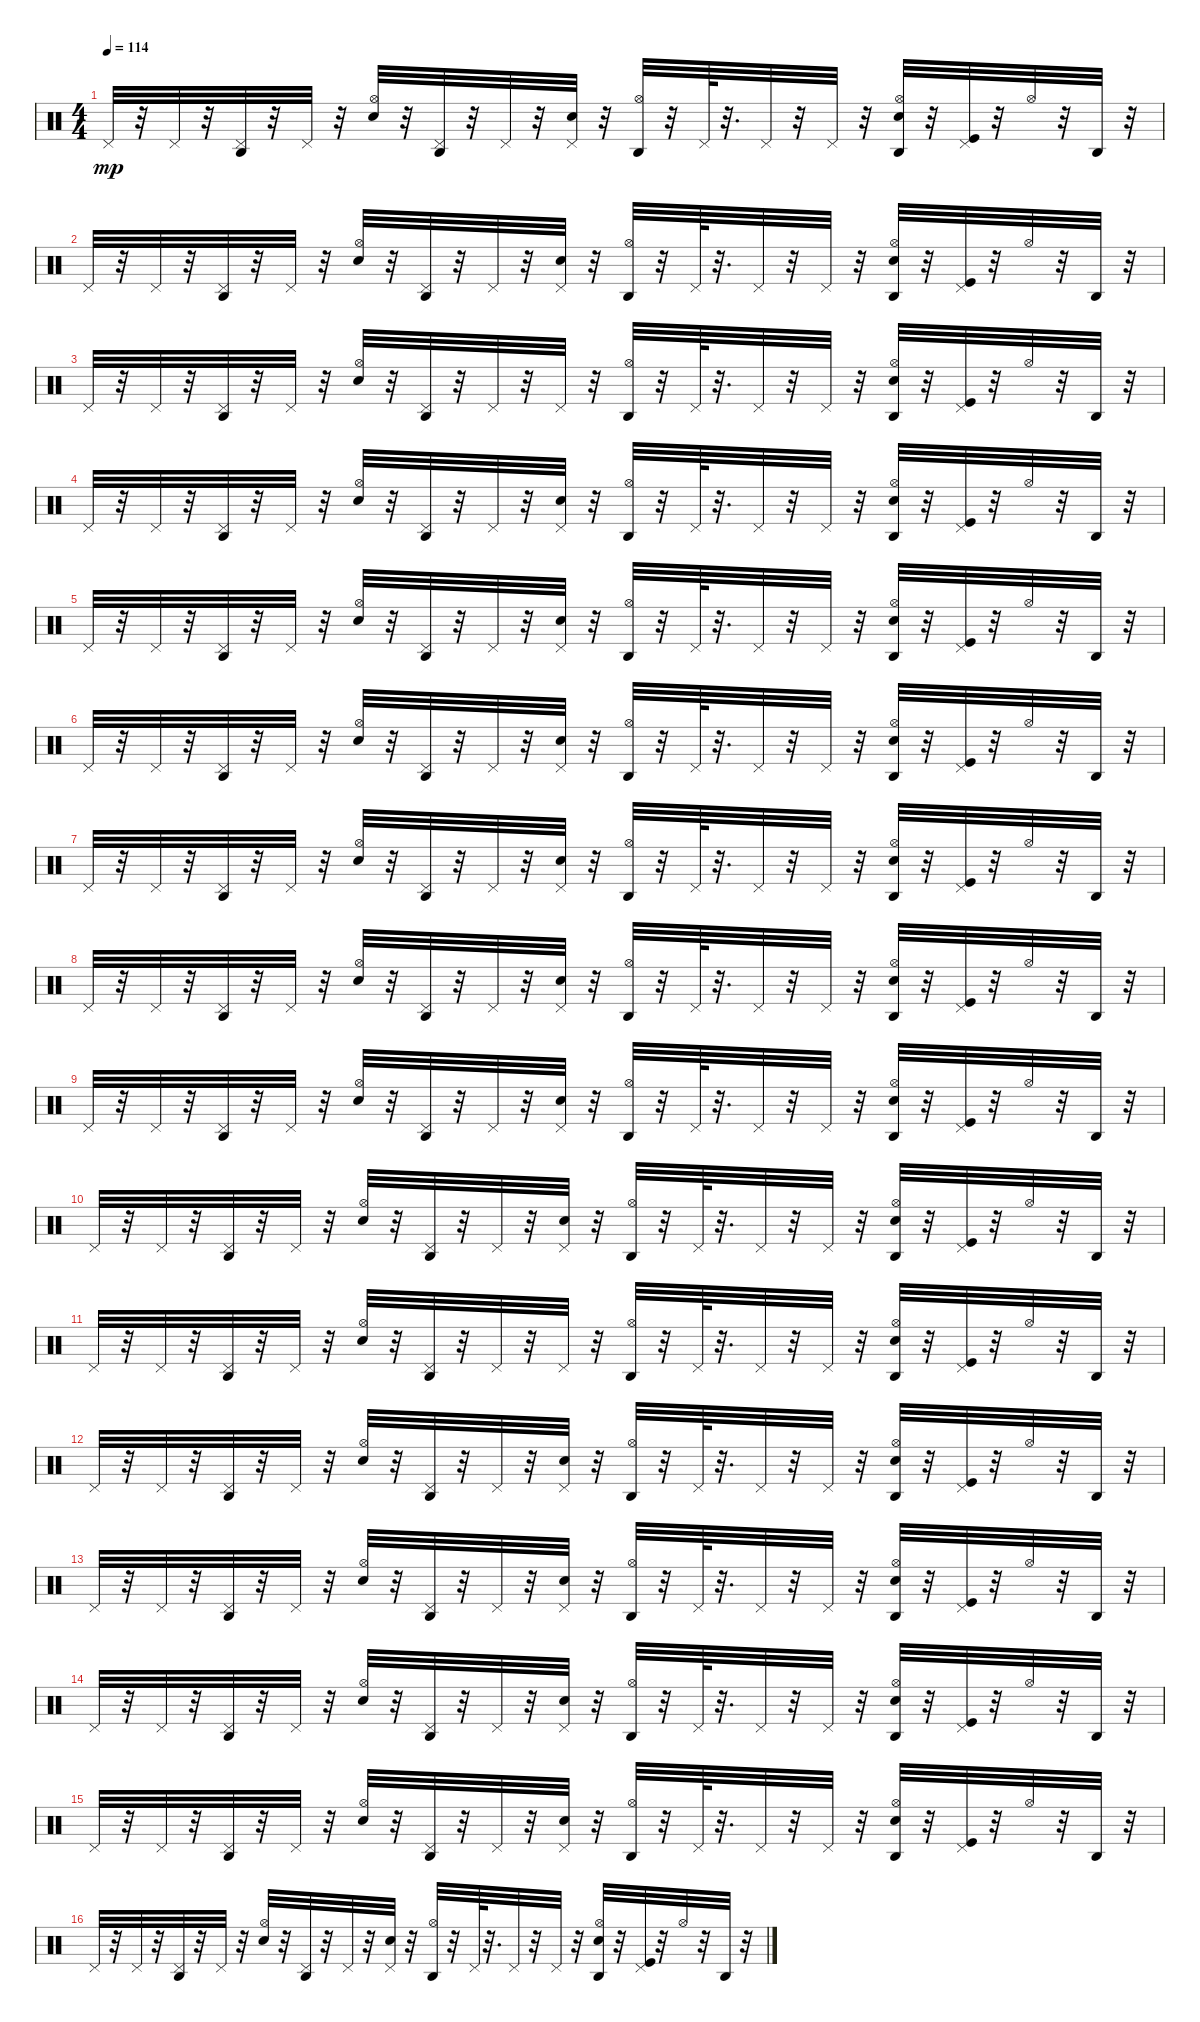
\track "" {instrument percussion}
\staff {score}
\articulation defaults
\ts (4 4)
\tempo 114
\clef neutral
\ks c "Pedal Hi-Hat (hit)".32{dy mp}
r.32 "Pedal Hi-Hat (hit)".32 r.32 ("Agogo high (hit)" "Pedal Hi-Hat (hit)").32 r.32 "Pedal Hi-Hat (hit)".32 r.32 ("Hi-Hat (open)" "Electric Snare (hit)").32 r.32 ("Pedal Hi-Hat (hit)" "Agogo high (hit)").32 r.32 "Pedal Hi-Hat (hit)".32 r.32 ("Pedal Hi-Hat (hit)" "Snare (hit) 2").32 r.32 ("Hi-Hat (open)" "Agogo high (hit)").32 r.32 "Pedal Hi-Hat (hit)".64 r.32{d} "Pedal Hi-Hat (hit)".32 r.32 "Pedal Hi-Hat (hit)".32 r.32 ("Hi-Hat (open)" "Agogo high (hit)" "Electric Snare (hit)").32 r.32 ("Pedal Hi-Hat (hit)" "Kick (hit)").32 r.32 "Hi-Hat (open)".32 r.32 "Agogo high (hit)".32 r.32 |
"Pedal Hi-Hat (hit)".32 r.32 "Pedal Hi-Hat (hit)".32 r.32 ("Agogo high (hit)" "Pedal Hi-Hat (hit)").32 r.32 "Pedal Hi-Hat (hit)".32 r.32 ("Hi-Hat (open)" "Electric Snare (hit)").32 r.32 ("Pedal Hi-Hat (hit)" "Agogo high (hit)").32 r.32 "Pedal Hi-Hat (hit)".32 r.32 ("Pedal Hi-Hat (hit)" "Snare (hit) 2").32 r.32 ("Hi-Hat (open)" "Agogo high (hit)").32 r.32 "Pedal Hi-Hat (hit)".64 r.32{d} "Pedal Hi-Hat (hit)".32 r.32 "Pedal Hi-Hat (hit)".32 r.32 ("Hi-Hat (open)" "Agogo high (hit)" "Electric Snare (hit)").32 r.32 ("Pedal Hi-Hat (hit)" "Kick (hit)").32 r.32 "Hi-Hat (open)".32 r.32 "Agogo high (hit)".32 r.32 |
"Pedal Hi-Hat (hit)".32 r.32 "Pedal Hi-Hat (hit)".32 r.32 ("Agogo high (hit)" "Pedal Hi-Hat (hit)").32 r.32 "Pedal Hi-Hat (hit)".32 r.32 ("Hi-Hat (open)" "Electric Snare (hit)").32 r.32 ("Pedal Hi-Hat (hit)" "Agogo high (hit)").32 r.32 "Pedal Hi-Hat (hit)".32 r.32 "Pedal Hi-Hat (hit)".32 r.32 ("Agogo high (hit)" "Hi-Hat (open)").32 r.32 "Pedal Hi-Hat (hit)".64 r.32{d} "Pedal Hi-Hat (hit)".32 r.32 "Pedal Hi-Hat (hit)".32 r.32 ("Hi-Hat (open)" "Electric Snare (hit)" "Agogo high (hit)").32 r.32 ("Pedal Hi-Hat (hit)" "Kick (hit)").32 r.32 "Hi-Hat (open)".32 r.32 "Agogo high (hit)".32 r.32 |
"Pedal Hi-Hat (hit)".32 r.32 "Pedal Hi-Hat (hit)".32 r.32 ("Agogo high (hit)" "Pedal Hi-Hat (hit)").32 r.32 "Pedal Hi-Hat (hit)".32 r.32 ("Hi-Hat (open)" "Electric Snare (hit)").32 r.32 ("Pedal Hi-Hat (hit)" "Agogo high (hit)").32 r.32 "Pedal Hi-Hat (hit)".32 r.32 ("Pedal Hi-Hat (hit)" "Snare (hit) 2").32 r.32 ("Hi-Hat (open)" "Agogo high (hit)").32 r.32 "Pedal Hi-Hat (hit)".64 r.32{d} "Pedal Hi-Hat (hit)".32 r.32 "Pedal Hi-Hat (hit)".32 r.32 ("Hi-Hat (open)" "Agogo high (hit)" "Electric Snare (hit)").32 r.32 ("Pedal Hi-Hat (hit)" "Kick (hit)").32 r.32 "Hi-Hat (open)".32 r.32 "Agogo high (hit)".32 r.32 |
"Pedal Hi-Hat (hit)".32 r.32 "Pedal Hi-Hat (hit)".32 r.32 ("Agogo high (hit)" "Pedal Hi-Hat (hit)").32 r.32 "Pedal Hi-Hat (hit)".32 r.32 ("Hi-Hat (open)" "Electric Snare (hit)").32 r.32 ("Pedal Hi-Hat (hit)" "Agogo high (hit)").32 r.32 "Pedal Hi-Hat (hit)".32 r.32 ("Pedal Hi-Hat (hit)" "Snare (hit) 2").32 r.32 ("Hi-Hat (open)" "Agogo high (hit)").32 r.32 "Pedal Hi-Hat (hit)".64 r.32{d} "Pedal Hi-Hat (hit)".32 r.32 "Pedal Hi-Hat (hit)".32 r.32 ("Hi-Hat (open)" "Agogo high (hit)" "Electric Snare (hit)").32 r.32 ("Pedal Hi-Hat (hit)" "Kick (hit)").32 r.32 "Hi-Hat (open)".32 r.32 "Agogo high (hit)".32 r.32 |
"Pedal Hi-Hat (hit)".32 r.32 "Pedal Hi-Hat (hit)".32 r.32 ("Agogo high (hit)" "Pedal Hi-Hat (hit)").32 r.32 "Pedal Hi-Hat (hit)".32 r.32 ("Hi-Hat (open)" "Electric Snare (hit)").32 r.32 ("Pedal Hi-Hat (hit)" "Agogo high (hit)").32 r.32 "Pedal Hi-Hat (hit)".32 r.32 ("Pedal Hi-Hat (hit)" "Snare (hit) 2").32 r.32 ("Hi-Hat (open)" "Agogo high (hit)").32 r.32 "Pedal Hi-Hat (hit)".64 r.32{d} "Pedal Hi-Hat (hit)".32 r.32 "Pedal Hi-Hat (hit)".32 r.32 ("Hi-Hat (open)" "Agogo high (hit)" "Electric Snare (hit)").32 r.32 ("Pedal Hi-Hat (hit)" "Kick (hit)").32 r.32 "Hi-Hat (open)".32 r.32 "Agogo high (hit)".32 r.32 |
"Pedal Hi-Hat (hit)".32 r.32 "Pedal Hi-Hat (hit)".32 r.32 ("Agogo high (hit)" "Pedal Hi-Hat (hit)").32 r.32 "Pedal Hi-Hat (hit)".32 r.32 ("Hi-Hat (open)" "Electric Snare (hit)").32 r.32 ("Pedal Hi-Hat (hit)" "Agogo high (hit)").32 r.32 "Pedal Hi-Hat (hit)".32 r.32 ("Pedal Hi-Hat (hit)" "Snare (hit) 2").32 r.32 ("Hi-Hat (open)" "Agogo high (hit)").32 r.32 "Pedal Hi-Hat (hit)".64 r.32{d} "Pedal Hi-Hat (hit)".32 r.32 "Pedal Hi-Hat (hit)".32 r.32 ("Hi-Hat (open)" "Agogo high (hit)" "Electric Snare (hit)").32 r.32 ("Pedal Hi-Hat (hit)" "Kick (hit)").32 r.32 "Hi-Hat (open)".32 r.32 "Agogo high (hit)".32 r.32 |
"Pedal Hi-Hat (hit)".32 r.32 "Pedal Hi-Hat (hit)".32 r.32 ("Agogo high (hit)" "Pedal Hi-Hat (hit)").32 r.32 "Pedal Hi-Hat (hit)".32 r.32 ("Hi-Hat (open)" "Electric Snare (hit)").32 r.32 ("Pedal Hi-Hat (hit)" "Agogo high (hit)").32 r.32 "Pedal Hi-Hat (hit)".32 r.32 ("Pedal Hi-Hat (hit)" "Snare (hit) 2").32 r.32 ("Hi-Hat (open)" "Agogo high (hit)").32 r.32 "Pedal Hi-Hat (hit)".64 r.32{d} "Pedal Hi-Hat (hit)".32 r.32 "Pedal Hi-Hat (hit)".32 r.32 ("Hi-Hat (open)" "Agogo high (hit)" "Electric Snare (hit)").32 r.32 ("Pedal Hi-Hat (hit)" "Kick (hit)").32 r.32 "Hi-Hat (open)".32 r.32 "Agogo high (hit)".32 r.32 |
"Pedal Hi-Hat (hit)".32 r.32 "Pedal Hi-Hat (hit)".32 r.32 ("Agogo high (hit)" "Pedal Hi-Hat (hit)").32 r.32 "Pedal Hi-Hat (hit)".32 r.32 ("Hi-Hat (open)" "Electric Snare (hit)").32 r.32 ("Pedal Hi-Hat (hit)" "Agogo high (hit)").32 r.32 "Pedal Hi-Hat (hit)".32 r.32 ("Pedal Hi-Hat (hit)" "Snare (hit) 2").32 r.32 ("Hi-Hat (open)" "Agogo high (hit)").32 r.32 "Pedal Hi-Hat (hit)".64 r.32{d} "Pedal Hi-Hat (hit)".32 r.32 "Pedal Hi-Hat (hit)".32 r.32 ("Hi-Hat (open)" "Agogo high (hit)" "Electric Snare (hit)").32 r.32 ("Pedal Hi-Hat (hit)" "Kick (hit)").32 r.32 "Hi-Hat (open)".32 r.32 "Agogo high (hit)".32 r.32 |
"Pedal Hi-Hat (hit)".32 r.32 "Pedal Hi-Hat (hit)".32 r.32 ("Agogo high (hit)" "Pedal Hi-Hat (hit)").32 r.32 "Pedal Hi-Hat (hit)".32 r.32 ("Hi-Hat (open)" "Electric Snare (hit)").32 r.32 ("Pedal Hi-Hat (hit)" "Agogo high (hit)").32 r.32 "Pedal Hi-Hat (hit)".32 r.32 ("Pedal Hi-Hat (hit)" "Snare (hit) 2").32 r.32 ("Hi-Hat (open)" "Agogo high (hit)").32 r.32 "Pedal Hi-Hat (hit)".64 r.32{d} "Pedal Hi-Hat (hit)".32 r.32 "Pedal Hi-Hat (hit)".32 r.32 ("Hi-Hat (open)" "Agogo high (hit)" "Electric Snare (hit)").32 r.32 ("Pedal Hi-Hat (hit)" "Kick (hit)").32 r.32 "Hi-Hat (open)".32 r.32 "Agogo high (hit)".32 r.32 |
"Pedal Hi-Hat (hit)".32 r.32 "Pedal Hi-Hat (hit)".32 r.32 ("Agogo high (hit)" "Pedal Hi-Hat (hit)").32 r.32 "Pedal Hi-Hat (hit)".32 r.32 ("Hi-Hat (open)" "Electric Snare (hit)").32 r.32 ("Pedal Hi-Hat (hit)" "Agogo high (hit)").32 r.32 "Pedal Hi-Hat (hit)".32 r.32 "Pedal Hi-Hat (hit)".32 r.32 ("Agogo high (hit)" "Hi-Hat (open)").32 r.32 "Pedal Hi-Hat (hit)".64 r.32{d} "Pedal Hi-Hat (hit)".32 r.32 "Pedal Hi-Hat (hit)".32 r.32 ("Hi-Hat (open)" "Electric Snare (hit)" "Agogo high (hit)").32 r.32 ("Pedal Hi-Hat (hit)" "Kick (hit)").32 r.32 "Hi-Hat (open)".32 r.32 "Agogo high (hit)".32 r.32 |
"Pedal Hi-Hat (hit)".32 r.32 "Pedal Hi-Hat (hit)".32 r.32 ("Agogo high (hit)" "Pedal Hi-Hat (hit)").32 r.32 "Pedal Hi-Hat (hit)".32 r.32 ("Hi-Hat (open)" "Electric Snare (hit)").32 r.32 ("Pedal Hi-Hat (hit)" "Agogo high (hit)").32 r.32 "Pedal Hi-Hat (hit)".32 r.32 ("Pedal Hi-Hat (hit)" "Snare (hit) 2").32 r.32 ("Hi-Hat (open)" "Agogo high (hit)").32 r.32 "Pedal Hi-Hat (hit)".64 r.32{d} "Pedal Hi-Hat (hit)".32 r.32 "Pedal Hi-Hat (hit)".32 r.32 ("Hi-Hat (open)" "Agogo high (hit)" "Electric Snare (hit)").32 r.32 ("Pedal Hi-Hat (hit)" "Kick (hit)").32 r.32 "Hi-Hat (open)".32 r.32 "Agogo high (hit)".32 r.32 |
"Pedal Hi-Hat (hit)".32 r.32 "Pedal Hi-Hat (hit)".32 r.32 ("Agogo high (hit)" "Pedal Hi-Hat (hit)").32 r.32 "Pedal Hi-Hat (hit)".32 r.32 ("Hi-Hat (open)" "Electric Snare (hit)").32 r.32 ("Pedal Hi-Hat (hit)" "Agogo high (hit)").32 r.32 "Pedal Hi-Hat (hit)".32 r.32 ("Pedal Hi-Hat (hit)" "Snare (hit) 2").32 r.32 ("Hi-Hat (open)" "Agogo high (hit)").32 r.32 "Pedal Hi-Hat (hit)".64 r.32{d} "Pedal Hi-Hat (hit)".32 r.32 "Pedal Hi-Hat (hit)".32 r.32 ("Hi-Hat (open)" "Agogo high (hit)" "Electric Snare (hit)").32 r.32 ("Pedal Hi-Hat (hit)" "Kick (hit)").32 r.32 "Hi-Hat (open)".32 r.32 "Agogo high (hit)".32 r.32 |
"Pedal Hi-Hat (hit)".32 r.32 "Pedal Hi-Hat (hit)".32 r.32 ("Agogo high (hit)" "Pedal Hi-Hat (hit)").32 r.32 "Pedal Hi-Hat (hit)".32 r.32 ("Hi-Hat (open)" "Electric Snare (hit)").32 r.32 ("Pedal Hi-Hat (hit)" "Agogo high (hit)").32 r.32 "Pedal Hi-Hat (hit)".32 r.32 ("Pedal Hi-Hat (hit)" "Snare (hit) 2").32 r.32 ("Hi-Hat (open)" "Agogo high (hit)").32 r.32 "Pedal Hi-Hat (hit)".64 r.32{d} "Pedal Hi-Hat (hit)".32 r.32 "Pedal Hi-Hat (hit)".32 r.32 ("Hi-Hat (open)" "Agogo high (hit)" "Electric Snare (hit)").32 r.32 ("Pedal Hi-Hat (hit)" "Kick (hit)").32 r.32 "Hi-Hat (open)".32 r.32 "Agogo high (hit)".32 r.32 |
"Pedal Hi-Hat (hit)".32 r.32 "Pedal Hi-Hat (hit)".32 r.32 ("Agogo high (hit)" "Pedal Hi-Hat (hit)").32 r.32 "Pedal Hi-Hat (hit)".32 r.32 ("Hi-Hat (open)" "Electric Snare (hit)").32 r.32 ("Pedal Hi-Hat (hit)" "Agogo high (hit)").32 r.32 "Pedal Hi-Hat (hit)".32 r.32 ("Pedal Hi-Hat (hit)" "Snare (hit) 2").32 r.32 ("Hi-Hat (open)" "Agogo high (hit)").32 r.32 "Pedal Hi-Hat (hit)".64 r.32{d} "Pedal Hi-Hat (hit)".32 r.32 "Pedal Hi-Hat (hit)".32 r.32 ("Hi-Hat (open)" "Agogo high (hit)" "Electric Snare (hit)").32 r.32 ("Pedal Hi-Hat (hit)" "Kick (hit)").32 r.32 "Hi-Hat (open)".32 r.32 "Agogo high (hit)".32 r.32 |
"Pedal Hi-Hat (hit)".32 r.32 "Pedal Hi-Hat (hit)".32 r.32 ("Agogo high (hit)" "Pedal Hi-Hat (hit)").32 r.32 "Pedal Hi-Hat (hit)".32 r.32 ("Hi-Hat (open)" "Electric Snare (hit)").32 r.32 ("Pedal Hi-Hat (hit)" "Agogo high (hit)").32 r.32 "Pedal Hi-Hat (hit)".32 r.32 ("Pedal Hi-Hat (hit)" "Snare (hit) 2").32 r.32 ("Hi-Hat (open)" "Agogo high (hit)").32 r.32 "Pedal Hi-Hat (hit)".64 r.32{d} "Pedal Hi-Hat (hit)".32 r.32 "Pedal Hi-Hat (hit)".32 r.32 ("Hi-Hat (open)" "Agogo high (hit)" "Electric Snare (hit)").32 r.32 ("Pedal Hi-Hat (hit)" "Kick (hit)").32 r.32 "Hi-Hat (open)".32 r.32 "Agogo high (hit)".32 r.32
